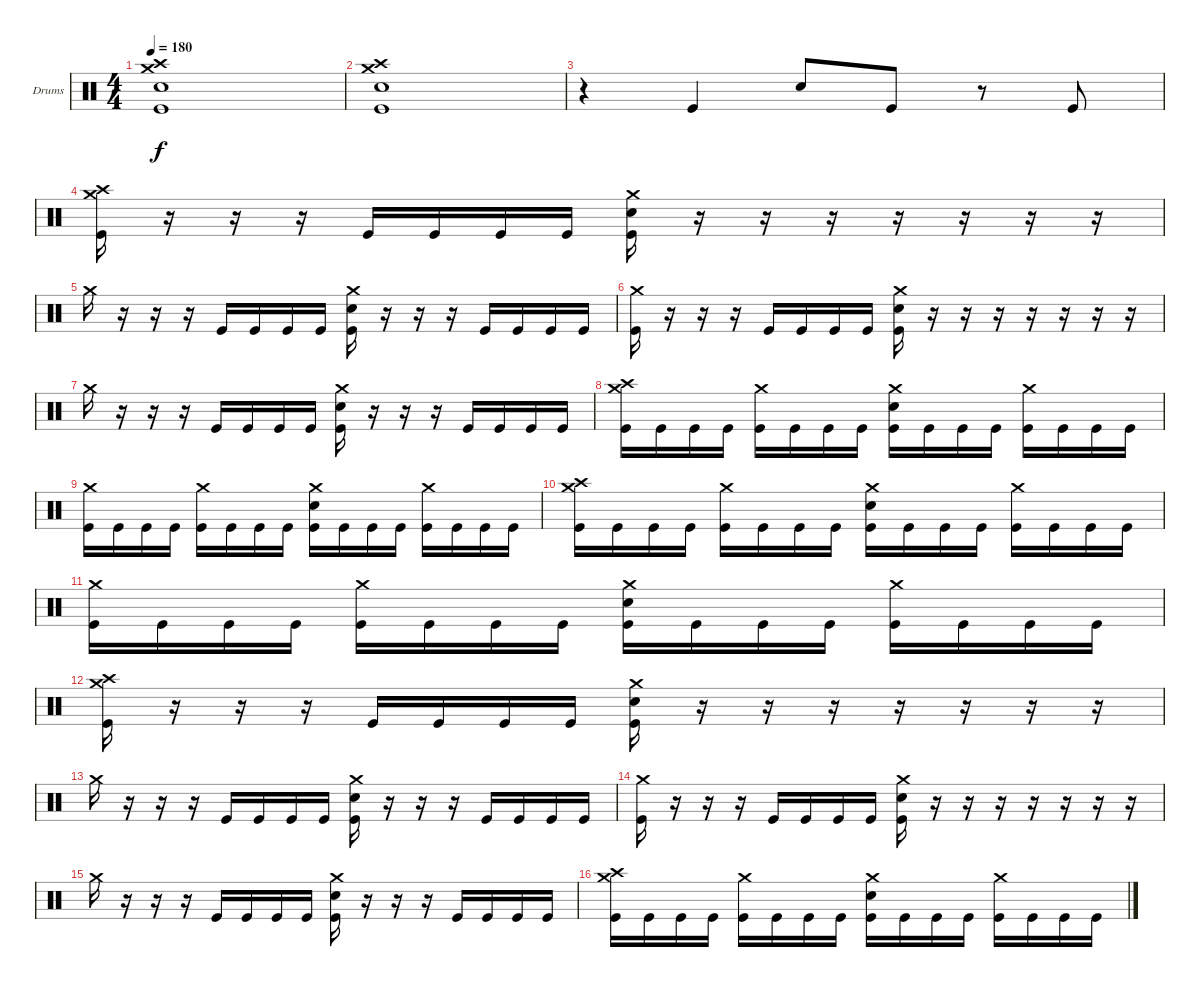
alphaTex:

\bracketExtendMode groupsimilarinstruments
\firstSystemTrackNameOrientation horizontal
\otherSystemsTrackNameOrientation horizontal
\track ("Drumkit" "Drums") {instrument percussion}
\staff {score}
\articulation defaults
\ts (4 4)
\tempo 180
\clef neutral
\ks c
("Crash high (hit)" "Crash medium (hit)" "Snare (hit) 2" "Kick (hit)").1{dy f} |
("Crash high (hit)" "Crash medium (hit)" "Snare (hit) 2" "Kick (hit)").1 |
r.4 "Kick (hit)".4 "Snare (hit) 2".8 "Kick (hit)".8 r.8 "Kick (hit)".8 |
("Crash high (hit)" "Crash medium (hit)" "Kick (hit)").16 r.16 r.16 r.16 "Kick (hit)".16 "Kick (hit)".16 "Kick (hit)".16 "Kick (hit)".16 ("Crash medium (hit)" "Snare (hit) 2" "Kick (hit)").16 r.16 r.16 r.16 r.16 r.16 r.16 r.16 |
"Crash medium (hit)".16 r.16 r.16 r.16 "Kick (hit)".16 "Kick (hit)".16 "Kick (hit)".16 "Kick (hit)".16 ("Crash medium (hit)" "Snare (hit) 2" "Kick (hit)").16 r.16 r.16 r.16 "Kick (hit)".16 "Kick (hit)".16 "Kick (hit)".16 "Kick (hit)".16 |
("Crash medium (hit)" "Kick (hit)").16 r.16 r.16 r.16 "Kick (hit)".16 "Kick (hit)".16 "Kick (hit)".16 "Kick (hit)".16 ("Crash medium (hit)" "Snare (hit) 2" "Kick (hit)").16 r.16 r.16 r.16 r.16 r.16 r.16 r.16 |
"Crash medium (hit)".16 r.16 r.16 r.16 "Kick (hit)".16 "Kick (hit)".16 "Kick (hit)".16 "Kick (hit)".16 ("Crash medium (hit)" "Snare (hit) 2" "Kick (hit)").16 r.16 r.16 r.16 "Kick (hit)".16 "Kick (hit)".16 "Kick (hit)".16 "Kick (hit)".16 |
("Crash high (hit)" "Crash medium (hit)" "Kick (hit)").16 "Kick (hit)".16 "Kick (hit)".16 "Kick (hit)".16 ("Crash medium (hit)" "Kick (hit)").16 "Kick (hit)".16 "Kick (hit)".16 "Kick (hit)".16 ("Crash medium (hit)" "Snare (hit) 2" "Kick (hit)").16 "Kick (hit)".16 "Kick (hit)".16 "Kick (hit)".16 ("Crash medium (hit)" "Kick (hit)").16 "Kick (hit)".16 "Kick (hit)".16 "Kick (hit)".16 |
("Crash medium (hit)" "Kick (hit)").16 "Kick (hit)".16 "Kick (hit)".16 "Kick (hit)".16 ("Crash medium (hit)" "Kick (hit)").16 "Kick (hit)".16 "Kick (hit)".16 "Kick (hit)".16 ("Crash medium (hit)" "Snare (hit) 2" "Kick (hit)").16 "Kick (hit)".16 "Kick (hit)".16 "Kick (hit)".16 ("Crash medium (hit)" "Kick (hit)").16 "Kick (hit)".16 "Kick (hit)".16 "Kick (hit)".16 |
("Crash high (hit)" "Crash medium (hit)" "Kick (hit)").16 "Kick (hit)".16 "Kick (hit)".16 "Kick (hit)".16 ("Crash medium (hit)" "Kick (hit)").16 "Kick (hit)".16 "Kick (hit)".16 "Kick (hit)".16 ("Crash medium (hit)" "Snare (hit) 2" "Kick (hit)").16 "Kick (hit)".16 "Kick (hit)".16 "Kick (hit)".16 ("Crash medium (hit)" "Kick (hit)").16 "Kick (hit)".16 "Kick (hit)".16 "Kick (hit)".16 |
("Crash medium (hit)" "Kick (hit)").16 "Kick (hit)".16 "Kick (hit)".16 "Kick (hit)".16 ("Crash medium (hit)" "Kick (hit)").16 "Kick (hit)".16 "Kick (hit)".16 "Kick (hit)".16 ("Crash medium (hit)" "Snare (hit) 2" "Kick (hit)").16 "Kick (hit)".16 "Kick (hit)".16 "Kick (hit)".16 ("Crash medium (hit)" "Kick (hit)").16 "Kick (hit)".16 "Kick (hit)".16 "Kick (hit)".16 |
("Crash high (hit)" "Crash medium (hit)" "Kick (hit)").16 r.16 r.16 r.16 "Kick (hit)".16 "Kick (hit)".16 "Kick (hit)".16 "Kick (hit)".16 ("Crash medium (hit)" "Snare (hit) 2" "Kick (hit)").16 r.16 r.16 r.16 r.16 r.16 r.16 r.16 |
"Crash medium (hit)".16 r.16 r.16 r.16 "Kick (hit)".16 "Kick (hit)".16 "Kick (hit)".16 "Kick (hit)".16 ("Crash medium (hit)" "Snare (hit) 2" "Kick (hit)").16 r.16 r.16 r.16 "Kick (hit)".16 "Kick (hit)".16 "Kick (hit)".16 "Kick (hit)".16 |
("Crash medium (hit)" "Kick (hit)").16 r.16 r.16 r.16 "Kick (hit)".16 "Kick (hit)".16 "Kick (hit)".16 "Kick (hit)".16 ("Crash medium (hit)" "Snare (hit) 2" "Kick (hit)").16 r.16 r.16 r.16 r.16 r.16 r.16 r.16 |
"Crash medium (hit)".16 r.16 r.16 r.16 "Kick (hit)".16 "Kick (hit)".16 "Kick (hit)".16 "Kick (hit)".16 ("Crash medium (hit)" "Snare (hit) 2" "Kick (hit)").16 r.16 r.16 r.16 "Kick (hit)".16 "Kick (hit)".16 "Kick (hit)".16 "Kick (hit)".16 |
("Crash high (hit)" "Crash medium (hit)" "Kick (hit)").16 "Kick (hit)".16 "Kick (hit)".16 "Kick (hit)".16 ("Crash medium (hit)" "Kick (hit)").16 "Kick (hit)".16 "Kick (hit)".16 "Kick (hit)".16 ("Crash medium (hit)" "Snare (hit) 2" "Kick (hit)").16 "Kick (hit)".16 "Kick (hit)".16 "Kick (hit)".16 ("Crash medium (hit)" "Kick (hit)").16 "Kick (hit)".16 "Kick (hit)".16 "Kick (hit)".16
